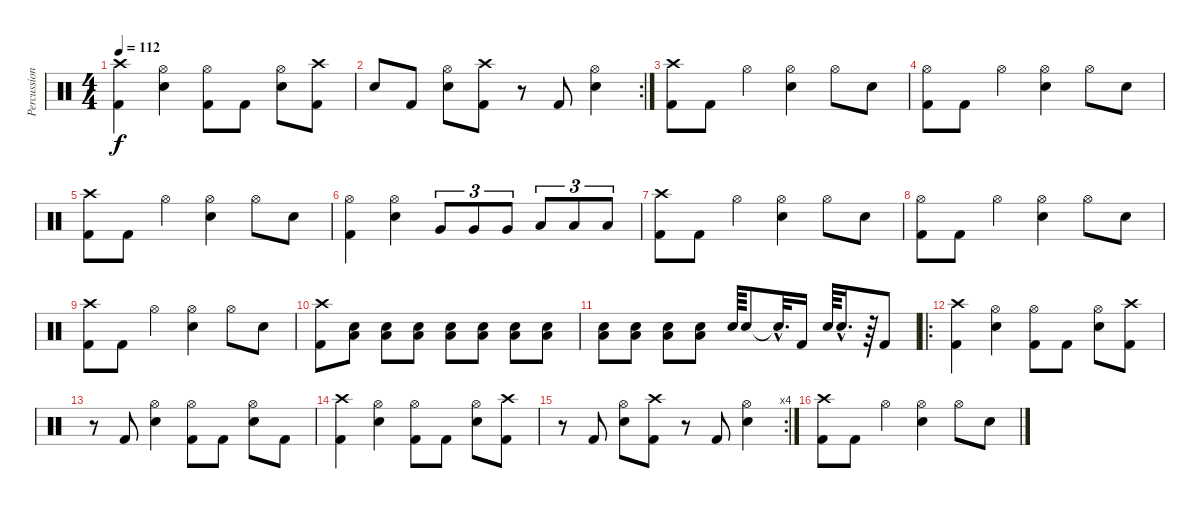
\track ("Percussion" "Percussion") {instrument percussion}
\staff {score}
\articulation defaults
\ts (4 4)
\tempo 112
\clef neutral
\ks c
("Crash high (hit)" "Kick (hit) 2").4{dy f} ("Hi-Hat (open)" "Snare (hit) 2").4 ("Hi-Hat (open)" "Kick (hit) 2").8 "Kick (hit) 2".8 ("Hi-Hat (open)" "Snare (hit) 2").8 ("Crash high (hit)" "Kick (hit) 2").8 |
\rc 2 "Snare (hit)".8 "Kick (hit) 2".8
("Hi-Hat (open)" "Snare (hit) 2").8 ("Crash high (hit)" "Kick (hit) 2").8 r.8 "Kick (hit) 2".8 ("Hi-Hat (open)" "Snare (hit) 2").4 |
("Crash high (hit)" "Kick (hit) 2").8 "Kick (hit) 2".8 "Hi-Hat (open)".4 ("Hi-Hat (open)" "Snare (hit) 2").4 "Hi-Hat (open)".8 "Snare (hit) 2".8 |
("Hi-Hat (open)" "Kick (hit) 2").8 "Kick (hit) 2".8 "Hi-Hat (open)".4 ("Hi-Hat (open)" "Snare (hit) 2").4 "Hi-Hat (open)".8 "Snare (hit) 2".8 |
("Crash high (hit)" "Kick (hit) 2").8 "Kick (hit) 2".8 "Hi-Hat (open)".4 ("Hi-Hat (open)" "Snare (hit) 2").4 "Hi-Hat (open)".8 "Snare (hit) 2".8 |
("Hi-Hat (open)" "Kick (hit) 2").4 ("Hi-Hat (open)" "Snare (hit) 2").4 "Very Low Tom (hit)".8{tu (3 2)} "Very Low Tom (hit)".8{tu (3 2)} "Very Low Tom (hit)".8{tu (3 2)} "Low Floor Tom (hit)".8{tu (3 2)} "Low Floor Tom (hit)".8{tu (3 2)} "Low Floor Tom (hit)".8{tu (3 2)} |
("Crash high (hit)" "Kick (hit) 2").8 "Kick (hit) 2".8 "Hi-Hat (open)".4 ("Hi-Hat (open)" "Snare (hit) 2").4 "Hi-Hat (open)".8 "Snare (hit) 2".8 |
("Hi-Hat (open)" "Kick (hit) 2").8 "Kick (hit) 2".8 "Hi-Hat (open)".4 ("Hi-Hat (open)" "Snare (hit) 2").4 "Hi-Hat (open)".8 "Snare (hit) 2".8 |
("Crash high (hit)" "Kick (hit) 2").8 "Kick (hit) 2".8 "Hi-Hat (open)".4 ("Hi-Hat (open)" "Snare (hit) 2").4 "Hi-Hat (open)".8 "Snare (hit) 2".8 |
("Crash high (hit)" "Kick (hit) 2").8 ("Snare (hit) 2" "Low Floor Tom (hit)").8 ("Snare (hit) 2" "Low Floor Tom (hit)").8 ("Snare (hit) 2" "Low Floor Tom (hit)").8 ("Snare (hit) 2" "Low Floor Tom (hit)").8 ("Snare (hit) 2" "Low Floor Tom (hit)").8 ("Snare (hit) 2" "Low Floor Tom (hit)").8 ("Snare (hit) 2" "Low Floor Tom (hit)").8 |
("Snare (hit) 2" "Low Floor Tom (hit)").8 ("Snare (hit) 2" "Low Floor Tom (hit)").8 ("Snare (hit) 2" "Low Floor Tom (hit)").8 ("Snare (hit) 2" "Low Floor Tom (hit)").8 "Snare (hit) 2".64 "Snare (hit) 2".8 "Snare (hit)"{hac t}.32{d} "Kick (hit) 2".16 "Snare (hit) 2".64 "Snare (hit) 2"{hac}.16{d} r.64 "Kick (hit) 2".8 |
\ro
("Crash high (hit)" "Kick (hit) 2").4 ("Hi-Hat (open)" "Snare (hit) 2").4 ("Hi-Hat (open)" "Kick (hit) 2").8 "Kick (hit) 2".8 ("Hi-Hat (open)" "Snare (hit) 2").8 ("Crash high (hit)" "Kick (hit) 2").8 |
r.8 "Kick (hit) 2".8 ("Hi-Hat (open)" "Snare (hit) 2").4 ("Hi-Hat (open)" "Kick (hit) 2").8 "Kick (hit) 2".8 ("Hi-Hat (open)" "Snare (hit) 2").8 "Kick (hit) 2".8 |
("Crash high (hit)" "Kick (hit) 2").4 ("Hi-Hat (open)" "Snare (hit) 2").4 ("Hi-Hat (open)" "Kick (hit) 2").8 "Kick (hit) 2".8 ("Hi-Hat (open)" "Snare (hit) 2").8 ("Crash high (hit)" "Kick (hit) 2").8 |
\rc 4
r.8 "Kick (hit) 2".8 ("Hi-Hat (open)" "Snare (hit) 2").8 ("Crash high (hit)" "Kick (hit) 2").8 r.8 "Kick (hit) 2".8 ("Hi-Hat (open)" "Snare (hit) 2").4 |
("Crash high (hit)" "Kick (hit) 2").8 "Kick (hit) 2".8 "Hi-Hat (open)".4 ("Hi-Hat (open)" "Snare (hit) 2").4 "Hi-Hat (open)".8 "Snare (hit) 2".8
